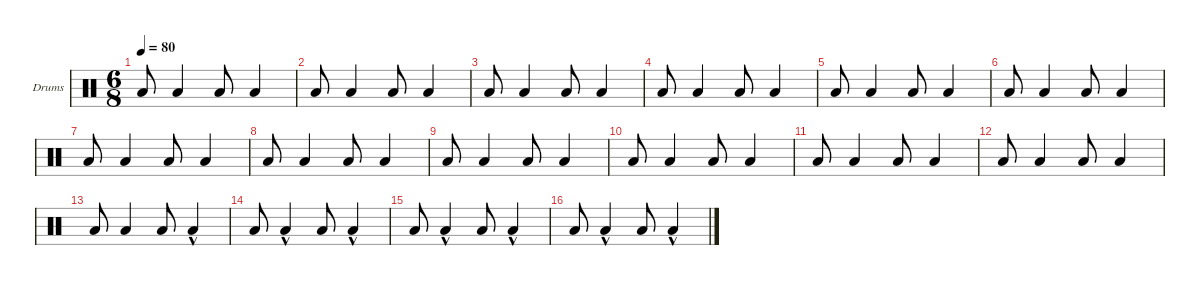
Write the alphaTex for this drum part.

\defaultSystemsLayout 4
\hideDynamics
\bracketExtendMode groupsimilarinstruments
\firstSystemTrackNameOrientation horizontal
\otherSystemsTrackNameOrientation horizontal
\track ("Drumkit" "Drums") {instrument percussion}
\staff {score}
\articulation defaults
\ts (6 8)
\tempo 80
\clef neutral
\ks c "Low Tom (hit)".8{dy mp} "Low Tom (hit)".4 "Low Tom (hit)".8 "Low Tom (hit)".4
|
"Low Tom (hit)".8 "Low Tom (hit)".4 "Low Tom (hit)".8 "Low Tom (hit)".4 |
"Low Tom (hit)".8 "Low Tom (hit)".4 "Low Tom (hit)".8 "Low Tom (hit)".4 |
"Low Tom (hit)".8 "Low Tom (hit)".4 "Low Tom (hit)".8 "Low Tom (hit)".4 |
"Low Tom (hit)".8 "Low Tom (hit)".4 "Low Tom (hit)".8 "Low Tom (hit)".4 |
"Low Tom (hit)".8 "Low Tom (hit)".4 "Low Tom (hit)".8 "Low Tom (hit)".4 |
"Low Tom (hit)".8 "Low Tom (hit)".4 "Low Tom (hit)".8 "Low Tom (hit)".4 |
"Low Tom (hit)".8 "Low Tom (hit)".4 "Low Tom (hit)".8 "Low Tom (hit)".4 |
"Low Tom (hit)".8 "Low Tom (hit)".4 "Low Tom (hit)".8 "Low Tom (hit)".4 |
"Low Tom (hit)".8 "Low Tom (hit)".4 "Low Tom (hit)".8 "Low Tom (hit)".4 |
"Low Tom (hit)".8 "Low Tom (hit)".4 "Low Tom (hit)".8 "Low Tom (hit)".4 |
"Low Tom (hit)".8 "Low Tom (hit)".4 "Low Tom (hit)".8 "Low Tom (hit)".4 |
"Low Tom (hit)".8 "Low Tom (hit)".4 "Low Tom (hit)".8 "Low Tom (hit)"{hac}.4 |
"Low Tom (hit)".8 "Low Tom (hit)"{hac}.4 "Low Tom (hit)".8 "Low Tom (hit)"{hac}.4 |
"Low Tom (hit)".8 "Low Tom (hit)"{hac}.4 "Low Tom (hit)".8 "Low Tom (hit)"{hac}.4 |
"Low Tom (hit)".8 "Low Tom (hit)"{hac}.4 "Low Tom (hit)".8 "Low Tom (hit)"{hac}.4
